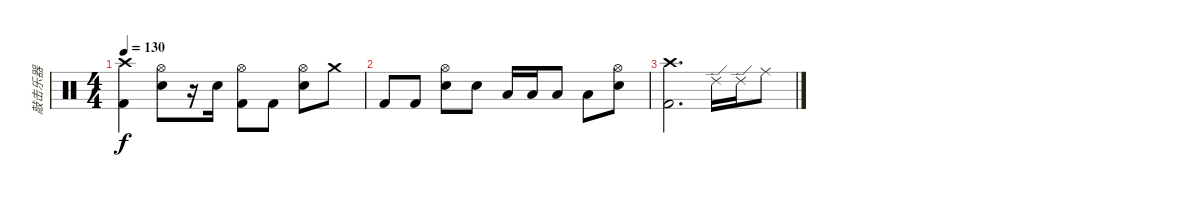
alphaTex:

\track ("敲击乐器" "敲击乐器") {instrument percussion}
\staff {score}
\articulation defaults
\ts (4 4)
\tempo 130
\clef neutral
\ks c
("Crash high (hit)" "Kick (hit) 2").4{dy f} ("Hi-Hat (open)" "Snare (hit) 2").8 r.16 "Snare (hit) 2".16 ("Hi-Hat (open)" "Kick (hit) 2").8 "Kick (hit) 2".8 ("Hi-Hat (open)" "Snare (hit) 2").8 "Crash medium (hit)".8 |
"Kick (hit) 2".8 "Kick (hit) 2".8 ("Hi-Hat (open)" "Snare (hit) 2").8 "Snare (hit) 2".8 "Low Tom (hit)".16 "Low Tom (hit)".16 "Low Floor Tom (hit)".8 "Low Floor Tom (hit)".8 ("Hi-Hat (open)" "Snare (hit) 2").8 |
("Crash high (hit)" "Kick (hit) 2").2{d} "Ride (edge) 2".16 "Ride (edge) 2".16 "Ride (middle)".8
